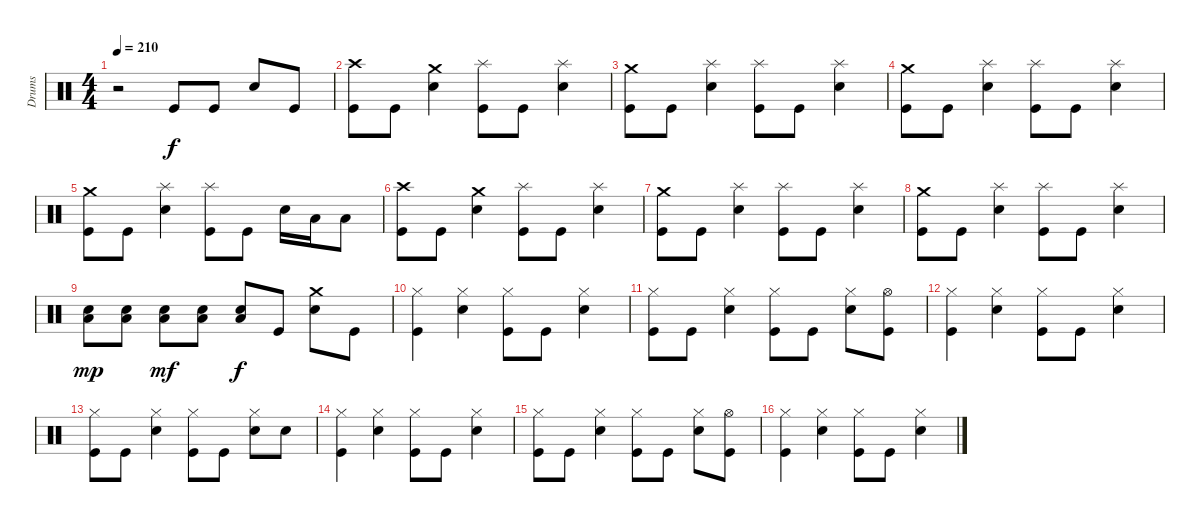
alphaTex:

\track ("Drums" "Drums") {instrument percussion}
\staff {score}
\articulation defaults
\ts (4 4)
\tempo 210
\clef neutral
\ks c
r.2{dy f} "Kick (hit)".8 "Kick (hit)".8 "Electric Snare (hit)".8 "Kick (hit)".8 |
("Crash high (hit)" "Kick (hit)").8 "Kick (hit)".8 ("Crash medium (hit)" "Electric Snare (hit)").4 ("Splash (hit)" "Kick (hit)").8 "Kick (hit)".8 ("Splash (hit)" "Electric Snare (hit)").4 |
("Crash medium (hit)" "Kick (hit)").8 "Kick (hit)".8 ("Splash (hit)" "Electric Snare (hit)").4 ("Splash (hit)" "Kick (hit)").8 "Kick (hit)".8 ("Splash (hit)" "Electric Snare (hit)").4 |
("Crash medium (hit)" "Kick (hit)").8 "Kick (hit)".8 ("Splash (hit)" "Electric Snare (hit)").4 ("Splash (hit)" "Kick (hit)").8 "Kick (hit)".8 ("Splash (hit)" "Electric Snare (hit)").4 |
("Crash medium (hit)" "Kick (hit)").8 "Kick (hit)".8 ("Splash (hit)" "Electric Snare (hit)").4 ("Splash (hit)" "Kick (hit)").8 "Kick (hit)".8 "Electric Snare (hit)".16 "Low Tom (hit)".16 "Low Tom (hit)".8 |
("Crash high (hit)" "Kick (hit)").8 "Kick (hit)".8 ("Crash medium (hit)" "Electric Snare (hit)").4 ("Splash (hit)" "Kick (hit)").8 "Kick (hit)".8 ("Splash (hit)" "Electric Snare (hit)").4 |
("Crash medium (hit)" "Kick (hit)").8 "Kick (hit)".8 ("Splash (hit)" "Electric Snare (hit)").4 ("Splash (hit)" "Kick (hit)").8 "Kick (hit)".8 ("Splash (hit)" "Electric Snare (hit)").4 |
("Crash medium (hit)" "Kick (hit)").8 "Kick (hit)".8 ("Splash (hit)" "Electric Snare (hit)").4 ("Splash (hit)" "Kick (hit)").8 "Kick (hit)".8 ("Splash (hit)" "Electric Snare (hit)").4 |
("Low Floor Tom (hit)" "Electric Snare (hit)").8{dy mp} ("Low Floor Tom (hit)" "Electric Snare (hit)").8 ("Low Floor Tom (hit)" "Electric Snare (hit)").8{dy mf} ("Low Floor Tom (hit)" "Electric Snare (hit)").8 ("Low Floor Tom (hit)" "Electric Snare (hit)").8{dy f} "Kick (hit)".8 ("Crash medium (hit)" "Electric Snare (hit)").8 "Kick (hit)".8 |
("Hi-Hat (closed)" "Kick (hit)").4 ("Hi-Hat (closed)" "Electric Snare (hit)").4 ("Hi-Hat (closed)" "Kick (hit)").8 "Kick (hit)".8 ("Hi-Hat (closed)" "Electric Snare (hit)").4 |
("Hi-Hat (closed)" "Kick (hit)").8 "Kick (hit)".8 ("Hi-Hat (closed)" "Electric Snare (hit)").4 ("Hi-Hat (closed)" "Kick (hit)").8 "Kick (hit)".8 ("Hi-Hat (closed)" "Electric Snare (hit)").8 ("Hi-Hat (open)" "Kick (hit)").8 |
("Hi-Hat (closed)" "Kick (hit)").4 ("Hi-Hat (closed)" "Electric Snare (hit)").4 ("Hi-Hat (closed)" "Kick (hit)").8 "Kick (hit)".8 ("Hi-Hat (closed)" "Electric Snare (hit)").4 |
("Hi-Hat (closed)" "Kick (hit)").8 "Kick (hit)".8 ("Hi-Hat (closed)" "Electric Snare (hit)").4 ("Hi-Hat (closed)" "Kick (hit)").8 "Kick (hit)".8 ("Hi-Hat (closed)" "Electric Snare (hit)").8 "Electric Snare (hit)".8 |
("Hi-Hat (closed)" "Kick (hit)").4 ("Hi-Hat (closed)" "Electric Snare (hit)").4 ("Hi-Hat (closed)" "Kick (hit)").8 "Kick (hit)".8 ("Hi-Hat (closed)" "Electric Snare (hit)").4 |
("Hi-Hat (closed)" "Kick (hit)").8 "Kick (hit)".8 ("Hi-Hat (closed)" "Electric Snare (hit)").4 ("Hi-Hat (closed)" "Kick (hit)").8 "Kick (hit)".8 ("Hi-Hat (closed)" "Electric Snare (hit)").8 ("Hi-Hat (open)" "Kick (hit)").8 |
("Hi-Hat (closed)" "Kick (hit)").4 ("Hi-Hat (closed)" "Electric Snare (hit)").4 ("Hi-Hat (closed)" "Kick (hit)").8 "Kick (hit)".8 ("Hi-Hat (closed)" "Electric Snare (hit)").4
